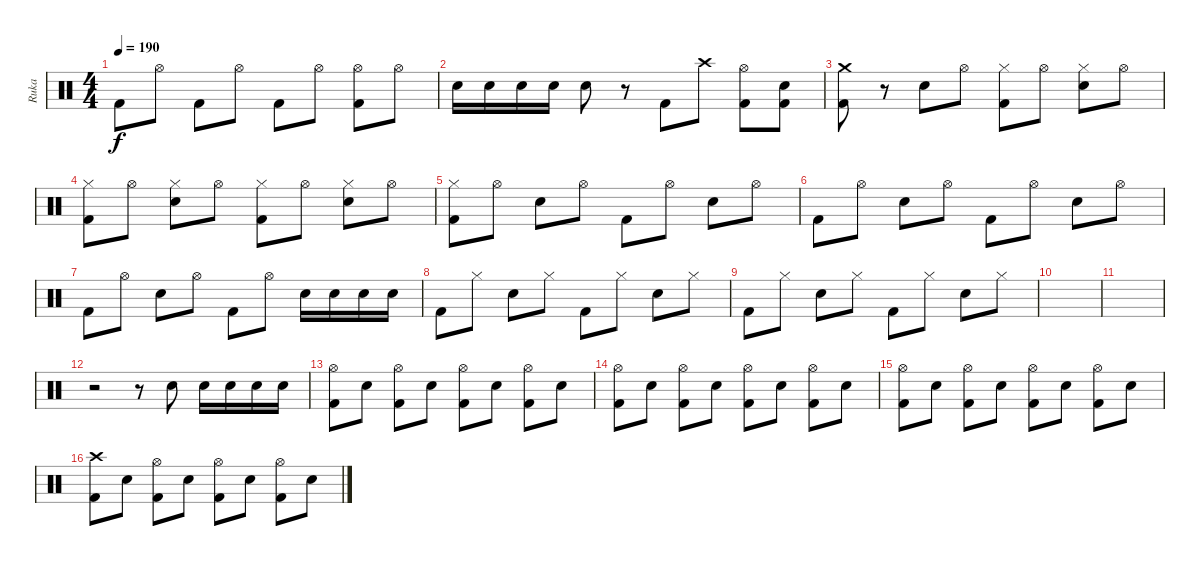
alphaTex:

\track ("Ruka" "Ruka") {instrument percussion}
\staff {score}
\articulation defaults
\ts (4 4)
\tempo 190
\clef neutral
\ks c "Kick (hit) 2".8{dy f} "Hi-Hat (open)".8 "Kick (hit) 2".8 "Hi-Hat (open)".8 "Kick (hit) 2".8 "Hi-Hat (open)".8
("Hi-Hat (open)" "Kick (hit) 2").8 "Hi-Hat (open)".8 |
"Electric Snare (hit)".16 "Electric Snare (hit)".16 "Electric Snare (hit)".16 "Electric Snare (hit)".16 "Electric Snare (hit)".8 r.8 "Kick (hit) 2".8 "Crash high (hit)".8 ("Hi-Hat (open)" "Kick (hit) 2").8 ("Electric Snare (hit)" "Kick (hit) 2").8 |
("Crash medium (hit)" "Kick (hit) 2").8 r.8 "Electric Snare (hit)".8 "Hi-Hat (open)".8 ("Hi-Hat (closed)" "Kick (hit) 2").8 "Hi-Hat (open)".8 ("Hi-Hat (closed)" "Electric Snare (hit)").8 "Hi-Hat (open)".8 |
("Hi-Hat (closed)" "Kick (hit) 2").8 "Hi-Hat (open)".8 ("Hi-Hat (closed)" "Electric Snare (hit)").8 "Hi-Hat (open)".8 ("Hi-Hat (closed)" "Kick (hit) 2").8 "Hi-Hat (open)".8 ("Hi-Hat (closed)" "Electric Snare (hit)").8 "Hi-Hat (open)".8 |
("Hi-Hat (closed)" "Kick (hit) 2").8 "Hi-Hat (open)".8 "Electric Snare (hit)".8 "Hi-Hat (open)".8 "Kick (hit) 2".8 "Hi-Hat (open)".8 "Electric Snare (hit)".8 "Hi-Hat (open)".8 |
"Kick (hit) 2".8 "Hi-Hat (open)".8 "Electric Snare (hit)".8 "Hi-Hat (open)".8 "Kick (hit) 2".8 "Hi-Hat (open)".8 "Electric Snare (hit)".8 "Hi-Hat (open)".8 |
"Kick (hit) 2".8 "Hi-Hat (open)".8 "Electric Snare (hit)".8 "Hi-Hat (open)".8 "Kick (hit) 2".8 "Hi-Hat (open)".8 "Electric Snare (hit)".16 "Electric Snare (hit)".16 "Electric Snare (hit)".16 "Electric Snare (hit)".16 |
"Kick (hit) 2".8 "Hi-Hat (closed)".8 "Electric Snare (hit)".8 "Hi-Hat (closed)".8 "Kick (hit) 2".8 "Hi-Hat (closed)".8 "Electric Snare (hit)".8 "Hi-Hat (closed)".8 |
"Kick (hit) 2".8 "Hi-Hat (closed)".8 "Electric Snare (hit)".8 "Hi-Hat (closed)".8 "Kick (hit) 2".8 "Hi-Hat (closed)".8 "Electric Snare (hit)".8 "Hi-Hat (closed)".8 |
|
|
r.2 r.8 "Electric Snare (hit)".8 "Electric Snare (hit)".16 "Electric Snare (hit)".16 "Electric Snare (hit)".16 "Electric Snare (hit)".16 |
("Hi-Hat (open)" "Kick (hit) 2").8 "Electric Snare (hit)".8 ("Hi-Hat (open)" "Kick (hit) 2").8 "Electric Snare (hit)".8 ("Hi-Hat (open)" "Kick (hit) 2").8 "Electric Snare (hit)".8 ("Hi-Hat (open)" "Kick (hit) 2").8 "Electric Snare (hit)".8 |
("Hi-Hat (open)" "Kick (hit) 2").8 "Electric Snare (hit)".8 ("Hi-Hat (open)" "Kick (hit) 2").8 "Electric Snare (hit)".8 ("Hi-Hat (open)" "Kick (hit) 2").8 "Electric Snare (hit)".8 ("Hi-Hat (open)" "Kick (hit) 2").8 "Electric Snare (hit)".8 |
("Hi-Hat (open)" "Kick (hit) 2").8 "Electric Snare (hit)".8 ("Hi-Hat (open)" "Kick (hit) 2").8 "Electric Snare (hit)".8 ("Hi-Hat (open)" "Kick (hit) 2").8 "Electric Snare (hit)".8 ("Hi-Hat (open)" "Kick (hit) 2").8 "Electric Snare (hit)".8 |
("Crash high (hit)" "Kick (hit) 2").8 "Electric Snare (hit)".8 ("Hi-Hat (open)" "Kick (hit) 2").8 "Electric Snare (hit)".8 ("Hi-Hat (open)" "Kick (hit) 2").8 "Electric Snare (hit)".8 ("Hi-Hat (open)" "Kick (hit) 2").8 "Electric Snare (hit)".8
